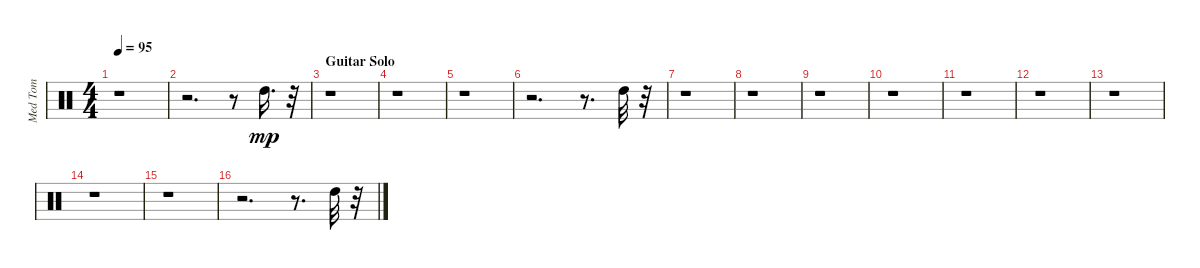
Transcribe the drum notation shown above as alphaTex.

\track ("Med Tom" "Med Tom") {instrument percussion}
\staff {score}
\articulation defaults
\ts (4 4)
\tempo 95
\clef neutral
\ks c
r.1{dy mp} |
r.2{d} r.8 "High Tom (hit)".16{d} r.32 |
\section ("" "Guitar Solo")
r.1 |
r.1 |
r.1 |
r.2{d} r.8{d} "High Tom (hit)".32 r.32 |
r.1 |
r.1 |
r.1 |
r.1 |
r.1 |
r.1 |
r.1 |
r.1 |
r.1 |
r.2{d} r.8{d} "High Tom (hit)".32 r.32
